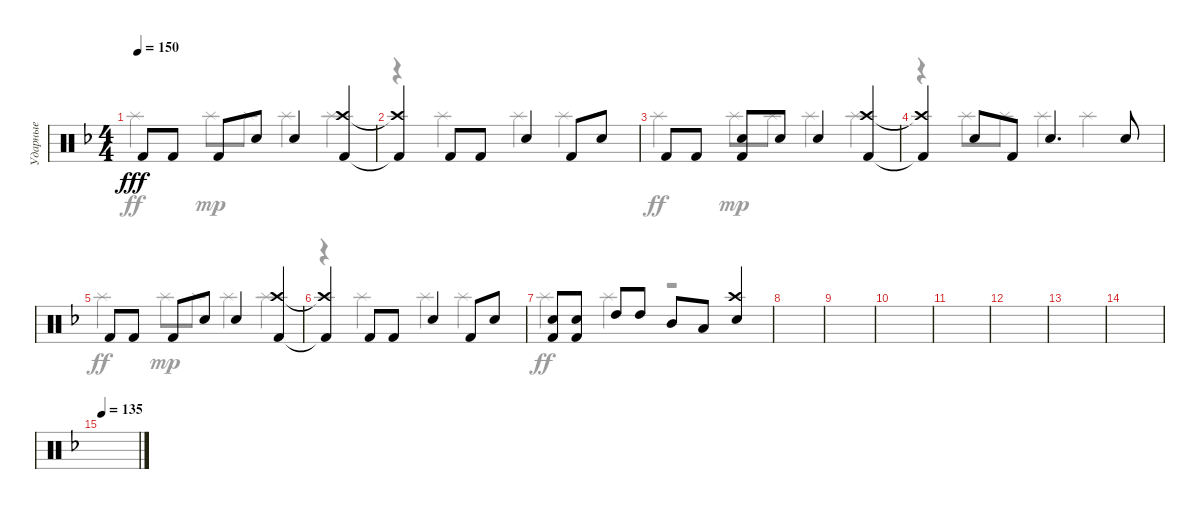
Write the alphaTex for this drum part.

\track ("Ударные" "Ударные") {instrument percussion}
\staff {score}
\articulation defaults
\voice
\ts (4 4)
\tempo 150
\clef neutral
\ks dminor "Kick (hit) 2".8{dy fff} "Kick (hit) 2".8 "Kick (hit) 2".8 "Snare (hit) 2".8 "Snare (hit) 2".4
("Kick (hit) 2" "Crash high (hit)").4 |
("Kick (hit) 2"{t} "Crash high (hit)"{t}).4 "Kick (hit) 2".8 "Kick (hit) 2".8 "Snare (hit) 2".4 "Kick (hit) 2".8 "Snare (hit) 2".8 |
"Kick (hit) 2".8 "Kick (hit) 2".8 ("Snare (hit) 2" "Kick (hit) 2").8 "Snare (hit) 2".8 "Snare (hit) 2".4 ("Kick (hit) 2" "Crash high (hit)").4 |
("Kick (hit) 2"{t} "Crash high (hit)"{t}).4 "Snare (hit) 2".8 "Kick (hit) 2".8 "Snare (hit) 2".4{d} "Snare (hit) 2".8 |
"Kick (hit) 2".8 "Kick (hit) 2".8 "Kick (hit) 2".8 "Snare (hit) 2".8 "Snare (hit) 2".4 ("Kick (hit) 2" "Crash high (hit)").4 |
("Kick (hit) 2"{t} "Crash high (hit)"{t}).4 "Kick (hit) 2".8 "Kick (hit) 2".8 "Snare (hit) 2".4 "Kick (hit) 2".8 "Snare (hit) 2".8 |
("Kick (hit) 2" "Snare (hit) 2").8 ("Kick (hit) 2" "Snare (hit) 2").8 "High Tom (hit)".8 "High Tom (hit)".8 "Mid Tom (hit)".8 "Low Tom (hit)".8 ("Crash high (hit)" "Snare (hit) 2").4 |
|
|
|
|
|
|
|
\tempo 135
|
\voice
\clef neutral
\ottava regular
\simile none
\ks dminor "Splash (hit)".4{dy ff} "Splash (hit)".8{dy mp} "Splash (hit)".8 "Splash (hit)".4 "Splash (hit)".4
|
r.4 "Splash (hit)".4 "Splash (hit)".4 "Splash (hit)".4 |
"Splash (hit)".4{dy ff} "Splash (hit)".8{dy mp} "Splash (hit)".8 "Splash (hit)".4 "Splash (hit)".4 |
r.4 "Splash (hit)".8 "Splash (hit)".8 "Splash (hit)".4 "Splash (hit)".4 |
"Splash (hit)".4{dy ff} "Splash (hit)".8{dy mp} "Splash (hit)".8 "Splash (hit)".4 "Splash (hit)".4 |
r.4 "Splash (hit)".4 "Splash (hit)".4 "Splash (hit)".4 |
"Splash (hit)".4{dy ff} "Splash (hit)".4 r.2 |
|
|
|
|
|
|
|
|
